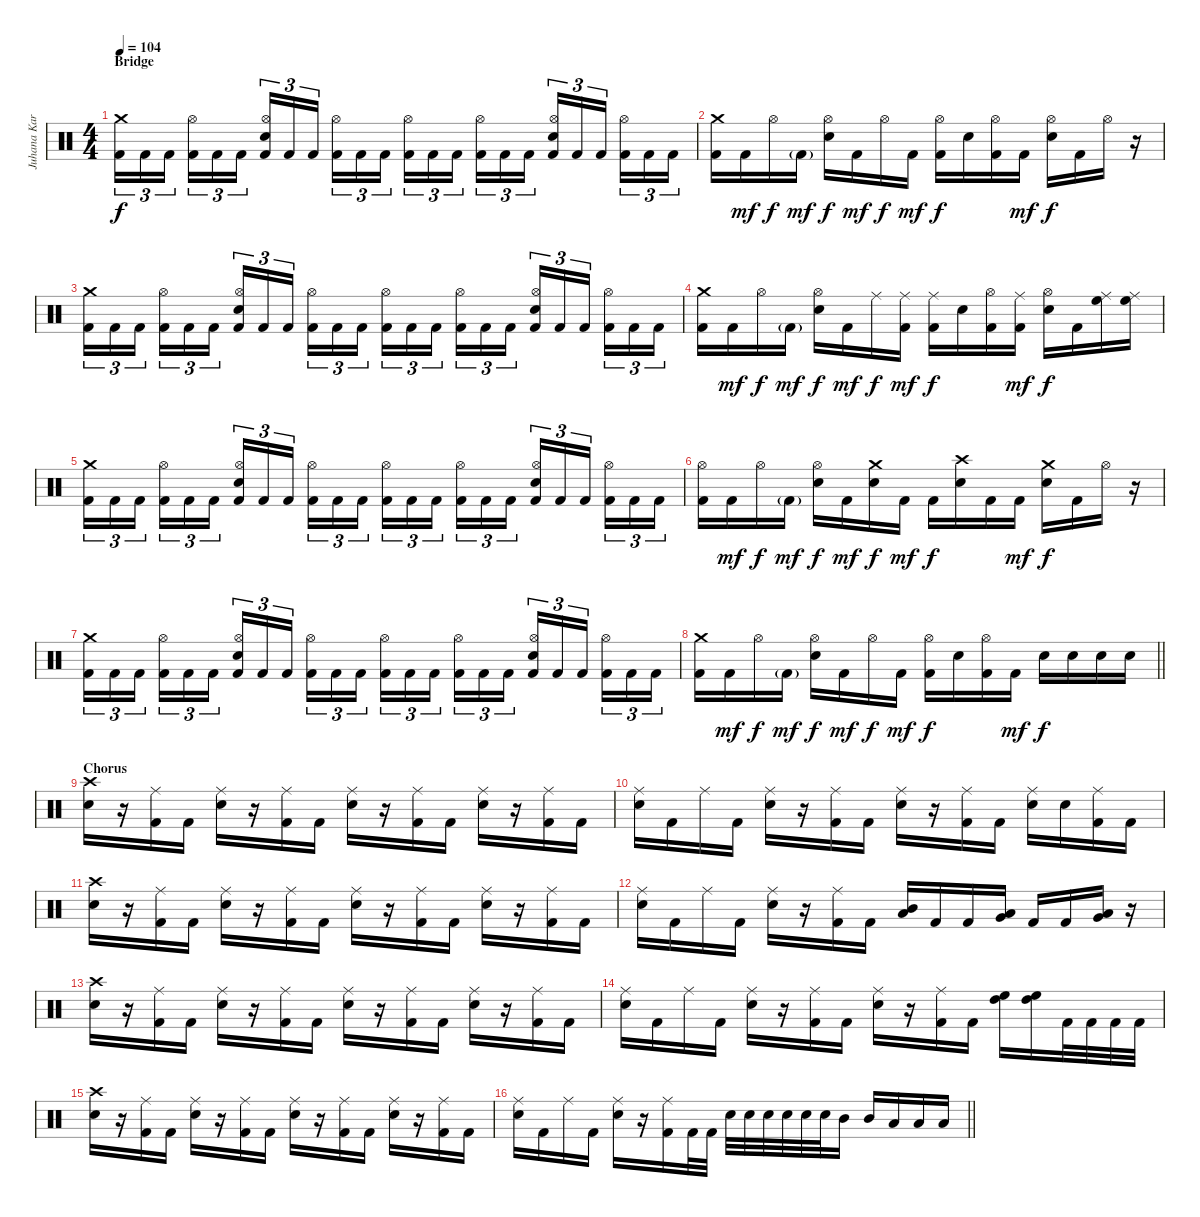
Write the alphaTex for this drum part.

\track ("Juhana Karlsson" "Juhana Kar") {instrument percussion}
\staff {score}
\articulation defaults
\ts (4 4)
\section ("" "Bridge")
\tempo 104
\clef neutral
\ks c
("Crash medium (hit)" "Kick (hit) 2").16{tu (3 2) dy f} "Kick (hit) 2".16{tu (3 2)} "Kick (hit) 2".16{tu (3 2) beam splitsecondary} ("Hi-Hat (open)" "Kick (hit) 2").16{tu (3 2)} "Kick (hit) 2".16{tu (3 2)} "Kick (hit) 2".16{tu (3 2)} ("Hi-Hat (open)" "Electric Snare (hit)" "Kick (hit) 2").16{tu (3 2)} "Kick (hit) 2".16{tu (3 2)} "Kick (hit) 2".16{tu (3 2) beam splitsecondary} ("Hi-Hat (open)" "Kick (hit) 2").16{tu (3 2)} "Kick (hit) 2".16{tu (3 2)} "Kick (hit) 2".16{tu (3 2)} ("Hi-Hat (open)" "Kick (hit) 2").16{tu (3 2)} "Kick (hit) 2".16{tu (3 2)} "Kick (hit) 2".16{tu (3 2) beam splitsecondary} ("Hi-Hat (open)" "Kick (hit) 2").16{tu (3 2)} "Kick (hit) 2".16{tu (3 2)} "Kick (hit) 2".16{tu (3 2)} ("Hi-Hat (open)" "Electric Snare (hit)" "Kick (hit) 2").16{tu (3 2)} "Kick (hit) 2".16{tu (3 2)} "Kick (hit) 2".16{tu (3 2) beam splitsecondary} ("Hi-Hat (open)" "Kick (hit) 2").16{tu (3 2)} "Kick (hit) 2".16{tu (3 2)} "Kick (hit) 2".16{tu (3 2)} |
("Crash medium (hit)" "Kick (hit) 2").16 "Kick (hit) 2".16{dy mf} "Hi-Hat (open)".16{dy f} "Kick (hit) 2"{g}.16{dy mf} ("Hi-Hat (open)" "Electric Snare (hit)").16{dy f} "Kick (hit) 2".16{dy mf} "Hi-Hat (open)".16{dy f} "Kick (hit) 2".16{dy mf} ("Hi-Hat (open)" "Kick (hit) 2").16{dy f} "Electric Snare (hit)".16 ("Hi-Hat (open)" "Kick (hit) 2").16 "Kick (hit) 2".16{dy mf} ("Hi-Hat (open)" "Electric Snare (hit)").16{dy f} "Kick (hit) 2".16 "Hi-Hat (open)".16 r.16 |
("Crash medium (hit)" "Kick (hit) 2").16{tu (3 2)} "Kick (hit) 2".16{tu (3 2)} "Kick (hit) 2".16{tu (3 2) beam splitsecondary} ("Hi-Hat (open)" "Kick (hit) 2").16{tu (3 2)} "Kick (hit) 2".16{tu (3 2)} "Kick (hit) 2".16{tu (3 2)} ("Hi-Hat (open)" "Electric Snare (hit)" "Kick (hit) 2").16{tu (3 2)} "Kick (hit) 2".16{tu (3 2)} "Kick (hit) 2".16{tu (3 2) beam splitsecondary} ("Hi-Hat (open)" "Kick (hit) 2").16{tu (3 2)} "Kick (hit) 2".16{tu (3 2)} "Kick (hit) 2".16{tu (3 2)} ("Hi-Hat (open)" "Kick (hit) 2").16{tu (3 2)} "Kick (hit) 2".16{tu (3 2)} "Kick (hit) 2".16{tu (3 2) beam splitsecondary} ("Hi-Hat (open)" "Kick (hit) 2").16{tu (3 2)} "Kick (hit) 2".16{tu (3 2)} "Kick (hit) 2".16{tu (3 2)} ("Hi-Hat (open)" "Electric Snare (hit)" "Kick (hit) 2").16{tu (3 2)} "Kick (hit) 2".16{tu (3 2)} "Kick (hit) 2".16{tu (3 2) beam splitsecondary} ("Hi-Hat (open)" "Kick (hit) 2").16{tu (3 2)} "Kick (hit) 2".16{tu (3 2)} "Kick (hit) 2".16{tu (3 2)} |
("Crash medium (hit)" "Kick (hit) 2").16 "Kick (hit) 2".16{dy mf} "Hi-Hat (open)".16{dy f} "Kick (hit) 2"{g}.16{dy mf} ("Hi-Hat (open)" "Electric Snare (hit)").16{dy f} "Kick (hit) 2".16{dy mf} "Ride (middle)".16{dy f} ("Ride (middle)" "Kick (hit) 2").16{dy mf} ("Ride (middle)" "Kick (hit) 2").16{dy f} "Electric Snare (hit)".16 ("Hi-Hat (open)" "Kick (hit) 2").16 ("Ride (middle)" "Kick (hit) 2").16{dy mf} ("Hi-Hat (open)" "Electric Snare (hit)").16{dy f} "Kick (hit) 2".16 ("Ride (middle)" "High Floor Tom (hit)").16 ("Ride (middle)" "High Floor Tom (hit)").16 |
("Crash medium (hit)" "Kick (hit) 2").16{tu (3 2)} "Kick (hit) 2".16{tu (3 2)} "Kick (hit) 2".16{tu (3 2) beam splitsecondary} ("Hi-Hat (open)" "Kick (hit) 2").16{tu (3 2)} "Kick (hit) 2".16{tu (3 2)} "Kick (hit) 2".16{tu (3 2)} ("Hi-Hat (open)" "Electric Snare (hit)" "Kick (hit) 2").16{tu (3 2)} "Kick (hit) 2".16{tu (3 2)} "Kick (hit) 2".16{tu (3 2) beam splitsecondary} ("Hi-Hat (open)" "Kick (hit) 2").16{tu (3 2)} "Kick (hit) 2".16{tu (3 2)} "Kick (hit) 2".16{tu (3 2)} ("Hi-Hat (open)" "Kick (hit) 2").16{tu (3 2)} "Kick (hit) 2".16{tu (3 2)} "Kick (hit) 2".16{tu (3 2) beam splitsecondary} ("Hi-Hat (open)" "Kick (hit) 2").16{tu (3 2)} "Kick (hit) 2".16{tu (3 2)} "Kick (hit) 2".16{tu (3 2)} ("Hi-Hat (open)" "Electric Snare (hit)" "Kick (hit) 2").16{tu (3 2)} "Kick (hit) 2".16{tu (3 2)} "Kick (hit) 2".16{tu (3 2) beam splitsecondary} ("Hi-Hat (open)" "Kick (hit) 2").16{tu (3 2)} "Kick (hit) 2".16{tu (3 2)} "Kick (hit) 2".16{tu (3 2)} |
("Hi-Hat (open)" "Kick (hit) 2").16 "Kick (hit) 2".16{dy mf} "Hi-Hat (open)".16{dy f} "Kick (hit) 2"{g}.16{dy mf} ("Hi-Hat (open)" "Electric Snare (hit)").16{dy f} "Kick (hit) 2".16{dy mf} ("Crash medium (hit)" "Electric Snare (hit)").16{dy f} "Kick (hit) 2".16{dy mf} "Kick (hit) 2".16{dy f} ("Crash high (hit)" "Electric Snare (hit)").16 "Kick (hit) 2".16 "Kick (hit) 2".16{dy mf} ("Crash medium (hit)" "Electric Snare (hit)").16{dy f} "Kick (hit) 2".16 "Hi-Hat (open)".16 r.16 |
("Crash medium (hit)" "Kick (hit) 2").16{tu (3 2)} "Kick (hit) 2".16{tu (3 2)} "Kick (hit) 2".16{tu (3 2) beam splitsecondary} ("Hi-Hat (open)" "Kick (hit) 2").16{tu (3 2)} "Kick (hit) 2".16{tu (3 2)} "Kick (hit) 2".16{tu (3 2)} ("Hi-Hat (open)" "Electric Snare (hit)" "Kick (hit) 2").16{tu (3 2)} "Kick (hit) 2".16{tu (3 2)} "Kick (hit) 2".16{tu (3 2) beam splitsecondary} ("Hi-Hat (open)" "Kick (hit) 2").16{tu (3 2)} "Kick (hit) 2".16{tu (3 2)} "Kick (hit) 2".16{tu (3 2)} ("Hi-Hat (open)" "Kick (hit) 2").16{tu (3 2)} "Kick (hit) 2".16{tu (3 2)} "Kick (hit) 2".16{tu (3 2) beam splitsecondary} ("Hi-Hat (open)" "Kick (hit) 2").16{tu (3 2)} "Kick (hit) 2".16{tu (3 2)} "Kick (hit) 2".16{tu (3 2)} ("Hi-Hat (open)" "Electric Snare (hit)" "Kick (hit) 2").16{tu (3 2)} "Kick (hit) 2".16{tu (3 2)} "Kick (hit) 2".16{tu (3 2) beam splitsecondary} ("Hi-Hat (open)" "Kick (hit) 2").16{tu (3 2)} "Kick (hit) 2".16{tu (3 2)} "Kick (hit) 2".16{tu (3 2)} |
\barLineRight lightlight
("Crash medium (hit)" "Kick (hit) 2").16 "Kick (hit) 2".16{dy mf} "Hi-Hat (open)".16{dy f} "Kick (hit) 2"{g}.16{dy mf} ("Hi-Hat (open)" "Electric Snare (hit)").16{dy f} "Kick (hit) 2".16{dy mf} "Hi-Hat (open)".16{dy f} "Kick (hit) 2".16{dy mf} ("Hi-Hat (open)" "Kick (hit) 2").16{dy f} "Electric Snare (hit)".16 ("Hi-Hat (open)" "Kick (hit) 2").16 "Kick (hit) 2".16{dy mf} "Electric Snare (hit)".16{dy f} "Electric Snare (hit)".16 "Electric Snare (hit)".16 "Electric Snare (hit)".16 |
\section ("" "Chorus")
("Crash high (hit)" "Electric Snare (hit)").16 r.16 ("Ride (middle)" "Kick (hit) 2").16 "Kick (hit) 2".16 ("Ride (middle)" "Electric Snare (hit)").16 r.16 ("Ride (middle)" "Kick (hit) 2").16 "Kick (hit) 2".16 ("Ride (middle)" "Electric Snare (hit)").16 r.16 ("Ride (middle)" "Kick (hit) 2").16 "Kick (hit) 2".16 ("Ride (middle)" "Electric Snare (hit)").16 r.16 ("Ride (middle)" "Kick (hit) 2").16 "Kick (hit) 2".16 |
("Ride (middle)" "Electric Snare (hit)").16 "Kick (hit) 2".16 "Ride (middle)".16 "Kick (hit) 2".16 ("Ride (middle)" "Electric Snare (hit)").16 r.16 ("Ride (middle)" "Kick (hit) 2").16 "Kick (hit) 2".16 ("Ride (middle)" "Electric Snare (hit)").16 r.16 ("Ride (middle)" "Kick (hit) 2").16 "Kick (hit) 2".16 ("Ride (middle)" "Electric Snare (hit)").16 "Electric Snare (hit)".16 ("Ride (middle)" "Kick (hit) 2").16 "Kick (hit) 2".16 |
("Crash high (hit)" "Electric Snare (hit)").16 r.16 ("Ride (middle)" "Kick (hit) 2").16 "Kick (hit) 2".16 ("Ride (middle)" "Electric Snare (hit)").16 r.16 ("Ride (middle)" "Kick (hit) 2").16 "Kick (hit) 2".16 ("Ride (middle)" "Electric Snare (hit)").16 r.16 ("Ride (middle)" "Kick (hit) 2").16 "Kick (hit) 2".16 ("Ride (middle)" "Electric Snare (hit)").16 r.16 ("Ride (middle)" "Kick (hit) 2").16 "Kick (hit) 2".16 |
("Ride (middle)" "Electric Snare (hit)").16 "Kick (hit) 2".16 "Ride (middle)".16 "Kick (hit) 2".16 ("Ride (middle)" "Electric Snare (hit)").16 r.16 ("Ride (middle)" "Kick (hit) 2").16 "Kick (hit) 2".16 ("Mid Tom (hit)" "Low Tom (hit)").16 "Kick (hit) 2".16 "Kick (hit) 2".16 ("Low Tom (hit)" "Very Low Tom (hit)").16 "Kick (hit) 2".16 "Kick (hit) 2".16 ("Very Low Tom (hit)" "Low Floor Tom (hit)").16 r.16 |
("Crash high (hit)" "Electric Snare (hit)").16 r.16 ("Ride (middle)" "Kick (hit) 2").16 "Kick (hit) 2".16 ("Ride (middle)" "Electric Snare (hit)").16 r.16 ("Ride (middle)" "Kick (hit) 2").16 "Kick (hit) 2".16 ("Ride (middle)" "Electric Snare (hit)").16 r.16 ("Ride (middle)" "Kick (hit) 2").16 "Kick (hit) 2".16 ("Ride (middle)" "Electric Snare (hit)").16 r.16 ("Ride (middle)" "Kick (hit) 2").16 "Kick (hit) 2".16 |
("Ride (middle)" "Electric Snare (hit)").16 "Kick (hit) 2".16 "Ride (middle)".16 "Kick (hit) 2".16 ("Ride (middle)" "Electric Snare (hit)").16 r.16 ("Ride (middle)" "Kick (hit) 2").16 "Kick (hit) 2".16 ("Ride (middle)" "Electric Snare (hit)").16 r.16 ("Ride (middle)" "Kick (hit) 2").16 "Kick (hit) 2".16 ("High Floor Tom (hit)" "High Tom (hit)").16 ("High Floor Tom (hit)" "High Tom (hit)").16 "Kick (hit) 2".32 "Kick (hit) 2".32 "Kick (hit) 2".32 "Kick (hit) 2".32 |
("Crash high (hit)" "Electric Snare (hit)").16 r.16 ("Ride (middle)" "Kick (hit) 2").16 "Kick (hit) 2".16 ("Ride (middle)" "Electric Snare (hit)").16 r.16 ("Ride (middle)" "Kick (hit) 2").16 "Kick (hit) 2".16 ("Ride (middle)" "Electric Snare (hit)").16 r.16 ("Ride (middle)" "Kick (hit) 2").16 "Kick (hit) 2".16 ("Ride (middle)" "Electric Snare (hit)").16 r.16 ("Ride (middle)" "Kick (hit) 2").16 "Kick (hit) 2".16 |
\barLineRight lightlight
("Ride (middle)" "Electric Snare (hit)").16 "Kick (hit) 2".16 "Ride (middle)".16 "Kick (hit) 2".16 ("Ride (middle)" "Electric Snare (hit)").16 r.16 ("Ride (middle)" "Kick (hit) 2").16 "Kick (hit) 2".32 "Kick (hit) 2".32 "Electric Snare (hit)".32 "Electric Snare (hit)".32 "Electric Snare (hit)".32 "Electric Snare (hit)".32 "Electric Snare (hit)".32 "Electric Snare (hit)".32 "Mid Tom (hit)".16 "Mid Tom (hit)".16 "Low Tom (hit)".16 "Low Tom (hit)".16 "Low Tom (hit)".16
